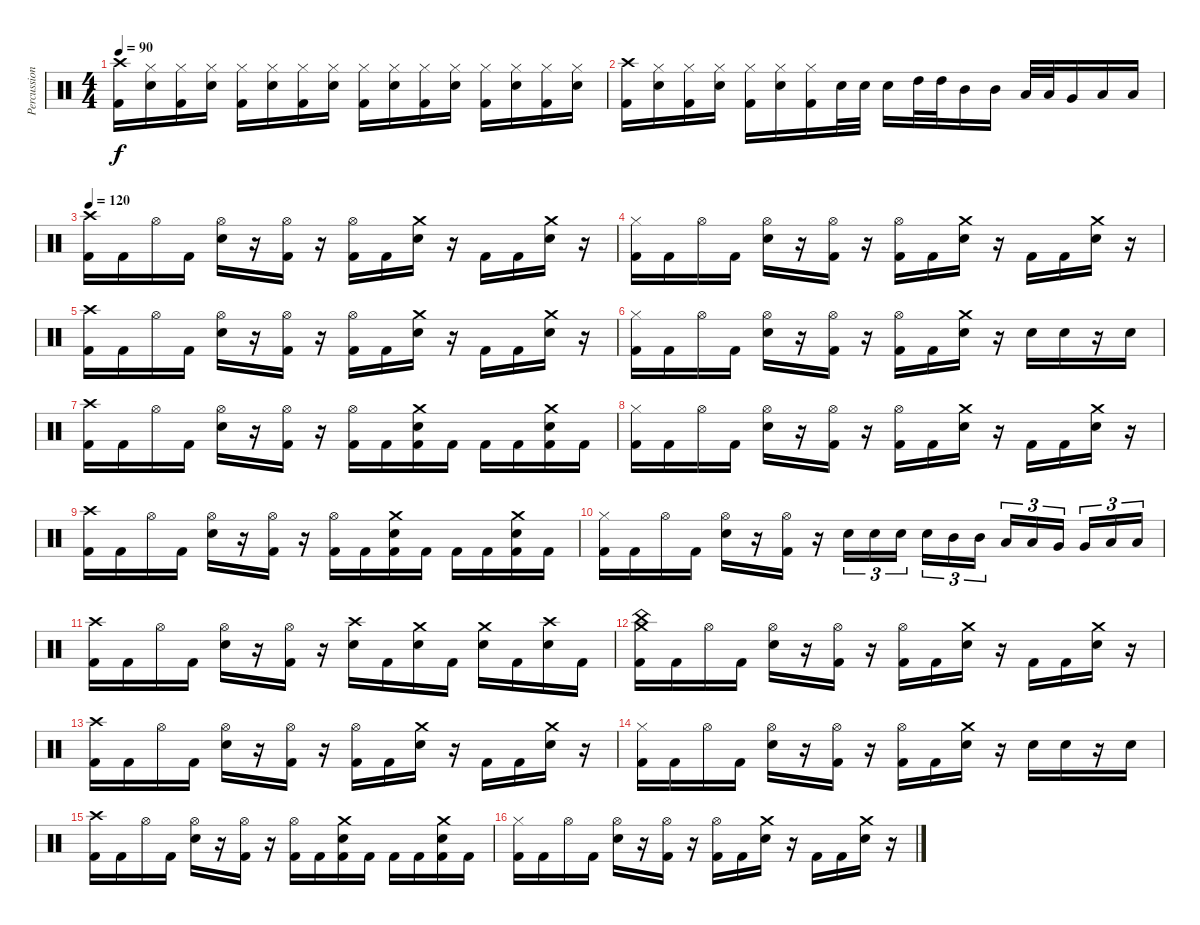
\track ("Percussion" "Percussion") {instrument percussion}
\staff {score}
\articulation defaults
\ts (4 4)
\tempo 90
\clef neutral
\ks c
("Crash high (hit)" "Kick (hit) 2").16{dy f} ("Hi-Hat (closed)" "Snare (hit) 2").16 ("Hi-Hat (closed)" "Kick (hit) 2").16 ("Hi-Hat (closed)" "Snare (hit) 2").16 ("Hi-Hat (closed)" "Kick (hit) 2").16 ("Hi-Hat (closed)" "Snare (hit) 2").16 ("Hi-Hat (closed)" "Kick (hit) 2").16 ("Hi-Hat (closed)" "Snare (hit) 2").16 ("Hi-Hat (closed)" "Kick (hit) 2").16 ("Hi-Hat (closed)" "Snare (hit) 2").16 ("Hi-Hat (closed)" "Kick (hit) 2").16 ("Hi-Hat (closed)" "Snare (hit) 2").16 ("Hi-Hat (closed)" "Kick (hit) 2").16 ("Hi-Hat (closed)" "Snare (hit) 2").16 ("Hi-Hat (closed)" "Kick (hit) 2").16 ("Hi-Hat (closed)" "Snare (hit) 2").16 |
("Crash high (hit)" "Kick (hit) 2").16 ("Hi-Hat (closed)" "Snare (hit) 2").16 ("Hi-Hat (closed)" "Kick (hit) 2").16 ("Hi-Hat (closed)" "Snare (hit) 2").16 ("Hi-Hat (closed)" "Kick (hit) 2").16 ("Hi-Hat (closed)" "Snare (hit) 2").16 ("Hi-Hat (closed)" "Kick (hit) 2").16 "Snare (hit) 2".32 "Snare (hit) 2".32 "Snare (hit) 2".16 "High Tom (hit)".32 "High Tom (hit)".32 "Mid Tom (hit)".16 "Mid Tom (hit)".16 "Low Tom (hit)".32 "Low Tom (hit)".32 "Very Low Tom (hit)".16 "Low Floor Tom (hit)".16 "Low Floor Tom (hit)".16 |
\tempo 120
("Crash high (hit)" "Kick (hit) 2").16 "Kick (hit) 2".16 "Hi-Hat (open)".16 "Kick (hit) 2".16 ("Hi-Hat (open)" "Snare (hit) 2").16 r.16 ("Hi-Hat (open)" "Kick (hit) 2").16 r.16 ("Hi-Hat (open)" "Kick (hit) 2").16 "Kick (hit) 2".16 ("Crash medium (hit)" "Snare (hit) 2").16 r.16 "Kick (hit) 2".16 "Kick (hit) 2".16 ("Crash medium (hit)" "Snare (hit) 2").16 r.16 |
("Hi-Hat (closed)" "Kick (hit) 2").16 "Kick (hit) 2".16 "Hi-Hat (open)".16 "Kick (hit) 2".16 ("Hi-Hat (open)" "Snare (hit) 2").16 r.16 ("Hi-Hat (open)" "Kick (hit) 2").16 r.16 ("Hi-Hat (open)" "Kick (hit) 2").16 "Kick (hit) 2".16 ("Crash medium (hit)" "Snare (hit) 2").16 r.16 "Kick (hit) 2".16 "Kick (hit) 2".16 ("Crash medium (hit)" "Snare (hit) 2").16 r.16 |
("Crash high (hit)" "Kick (hit) 2").16 "Kick (hit) 2".16 "Hi-Hat (open)".16 "Kick (hit) 2".16 ("Hi-Hat (open)" "Snare (hit) 2").16 r.16 ("Hi-Hat (open)" "Kick (hit) 2").16 r.16 ("Hi-Hat (open)" "Kick (hit) 2").16 "Kick (hit) 2".16 ("Crash medium (hit)" "Snare (hit) 2").16 r.16 "Kick (hit) 2".16 "Kick (hit) 2".16 ("Crash medium (hit)" "Snare (hit) 2").16 r.16 |
("Hi-Hat (closed)" "Kick (hit) 2").16 "Kick (hit) 2".16 "Hi-Hat (open)".16 "Kick (hit) 2".16 ("Hi-Hat (open)" "Snare (hit) 2").16 r.16 ("Hi-Hat (open)" "Kick (hit) 2").16 r.16 ("Hi-Hat (open)" "Kick (hit) 2").16 "Kick (hit) 2".16 ("Crash medium (hit)" "Snare (hit) 2").16 r.16 "Snare (hit) 2".16 "Snare (hit) 2".16 r.16 "Snare (hit) 2".16 |
("Crash high (hit)" "Kick (hit) 2").16 "Kick (hit) 2".16 "Hi-Hat (open)".16 "Kick (hit) 2".16 ("Hi-Hat (open)" "Snare (hit) 2").16 r.16 ("Hi-Hat (open)" "Kick (hit) 2").16 r.16 ("Hi-Hat (open)" "Kick (hit) 2").16 "Kick (hit) 2".16 ("Crash medium (hit)" "Snare (hit) 2" "Kick (hit) 2").16 "Kick (hit) 2".16 "Kick (hit) 2".16 "Kick (hit) 2".16 ("Crash medium (hit)" "Snare (hit) 2" "Kick (hit) 2").16 "Kick (hit) 2".16 |
("Hi-Hat (closed)" "Kick (hit) 2").16 "Kick (hit) 2".16 "Hi-Hat (open)".16 "Kick (hit) 2".16 ("Hi-Hat (open)" "Snare (hit) 2").16 r.16 ("Hi-Hat (open)" "Kick (hit) 2").16 r.16 ("Hi-Hat (open)" "Kick (hit) 2").16 "Kick (hit) 2".16 ("Crash medium (hit)" "Snare (hit) 2").16 r.16 "Kick (hit) 2".16 "Kick (hit) 2".16 ("Crash medium (hit)" "Snare (hit) 2").16 r.16 |
("Crash high (hit)" "Kick (hit) 2").16 "Kick (hit) 2".16 "Hi-Hat (open)".16 "Kick (hit) 2".16 ("Hi-Hat (open)" "Snare (hit) 2").16 r.16 ("Hi-Hat (open)" "Kick (hit) 2").16 r.16 ("Hi-Hat (open)" "Kick (hit) 2").16 "Kick (hit) 2".16 ("Crash medium (hit)" "Snare (hit) 2" "Kick (hit) 2").16 "Kick (hit) 2".16 "Kick (hit) 2".16 "Kick (hit) 2".16 ("Crash medium (hit)" "Snare (hit) 2" "Kick (hit) 2").16 "Kick (hit) 2".16 |
("Hi-Hat (closed)" "Kick (hit) 2").16 "Kick (hit) 2".16 "Hi-Hat (open)".16 "Kick (hit) 2".16 ("Hi-Hat (open)" "Snare (hit) 2").16 r.16 ("Hi-Hat (open)" "Kick (hit) 2").16 r.16 "Snare (hit) 2".16{tu (3 2)} "Snare (hit) 2".16{tu (3 2)} "Snare (hit) 2".16{tu (3 2) beam splitsecondary} "Snare (hit) 2".16{tu (3 2)} "Mid Tom (hit)".16{tu (3 2)} "Mid Tom (hit)".16{tu (3 2)} "Low Tom (hit)".16{tu (3 2)} "Low Tom (hit)".16{tu (3 2)} "Very Low Tom (hit)".16{tu (3 2) beam splitsecondary} "Very Low Tom (hit)".16{tu (3 2)} "Low Floor Tom (hit)".16{tu (3 2)} "Low Floor Tom (hit)".16{tu (3 2)} |
("Crash high (hit)" "Kick (hit) 2").16 "Kick (hit) 2".16 "Hi-Hat (open)".16 "Kick (hit) 2".16 ("Hi-Hat (open)" "Snare (hit) 2").16 r.16 ("Hi-Hat (open)" "Kick (hit) 2").16 r.16 ("Crash high (hit)" "Snare (hit) 2").16 "Kick (hit) 2".16 ("Crash medium (hit)" "Snare (hit) 2").16 "Kick (hit) 2".16 ("Crash medium (hit)" "Snare (hit) 2").16 "Kick (hit) 2".16 ("Crash high (hit)" "Snare (hit) 2").16 "Kick (hit) 2".16 |
("China (hit)" "Crash medium (hit)" "Kick (hit) 2").16 "Kick (hit) 2".16 "Hi-Hat (open)".16 "Kick (hit) 2".16 ("Hi-Hat (open)" "Snare (hit) 2").16 r.16 ("Hi-Hat (open)" "Kick (hit) 2").16 r.16 ("Hi-Hat (open)" "Kick (hit) 2").16 "Kick (hit) 2".16 ("Crash medium (hit)" "Snare (hit) 2").16 r.16 "Kick (hit) 2".16 "Kick (hit) 2".16 ("Crash medium (hit)" "Snare (hit) 2").16 r.16 |
("Crash high (hit)" "Kick (hit) 2").16 "Kick (hit) 2".16 "Hi-Hat (open)".16 "Kick (hit) 2".16 ("Hi-Hat (open)" "Snare (hit) 2").16 r.16 ("Hi-Hat (open)" "Kick (hit) 2").16 r.16 ("Hi-Hat (open)" "Kick (hit) 2").16 "Kick (hit) 2".16 ("Crash medium (hit)" "Snare (hit) 2").16 r.16 "Kick (hit) 2".16 "Kick (hit) 2".16 ("Crash medium (hit)" "Snare (hit) 2").16 r.16 |
("Hi-Hat (closed)" "Kick (hit) 2").16 "Kick (hit) 2".16 "Hi-Hat (open)".16 "Kick (hit) 2".16 ("Hi-Hat (open)" "Snare (hit) 2").16 r.16 ("Hi-Hat (open)" "Kick (hit) 2").16 r.16 ("Hi-Hat (open)" "Kick (hit) 2").16 "Kick (hit) 2".16 ("Crash medium (hit)" "Snare (hit) 2").16 r.16 "Snare (hit) 2".16 "Snare (hit) 2".16 r.16 "Snare (hit) 2".16 |
("Crash high (hit)" "Kick (hit) 2").16 "Kick (hit) 2".16 "Hi-Hat (open)".16 "Kick (hit) 2".16 ("Hi-Hat (open)" "Snare (hit) 2").16 r.16 ("Hi-Hat (open)" "Kick (hit) 2").16 r.16 ("Hi-Hat (open)" "Kick (hit) 2").16 "Kick (hit) 2".16 ("Crash medium (hit)" "Snare (hit) 2" "Kick (hit) 2").16 "Kick (hit) 2".16 "Kick (hit) 2".16 "Kick (hit) 2".16 ("Crash medium (hit)" "Snare (hit) 2" "Kick (hit) 2").16 "Kick (hit) 2".16 |
("Hi-Hat (closed)" "Kick (hit) 2").16 "Kick (hit) 2".16 "Hi-Hat (open)".16 "Kick (hit) 2".16 ("Hi-Hat (open)" "Snare (hit) 2").16 r.16 ("Hi-Hat (open)" "Kick (hit) 2").16 r.16 ("Hi-Hat (open)" "Kick (hit) 2").16 "Kick (hit) 2".16 ("Crash medium (hit)" "Snare (hit) 2").16 r.16 "Kick (hit) 2".16 "Kick (hit) 2".16 ("Crash medium (hit)" "Snare (hit) 2").16 r.16
